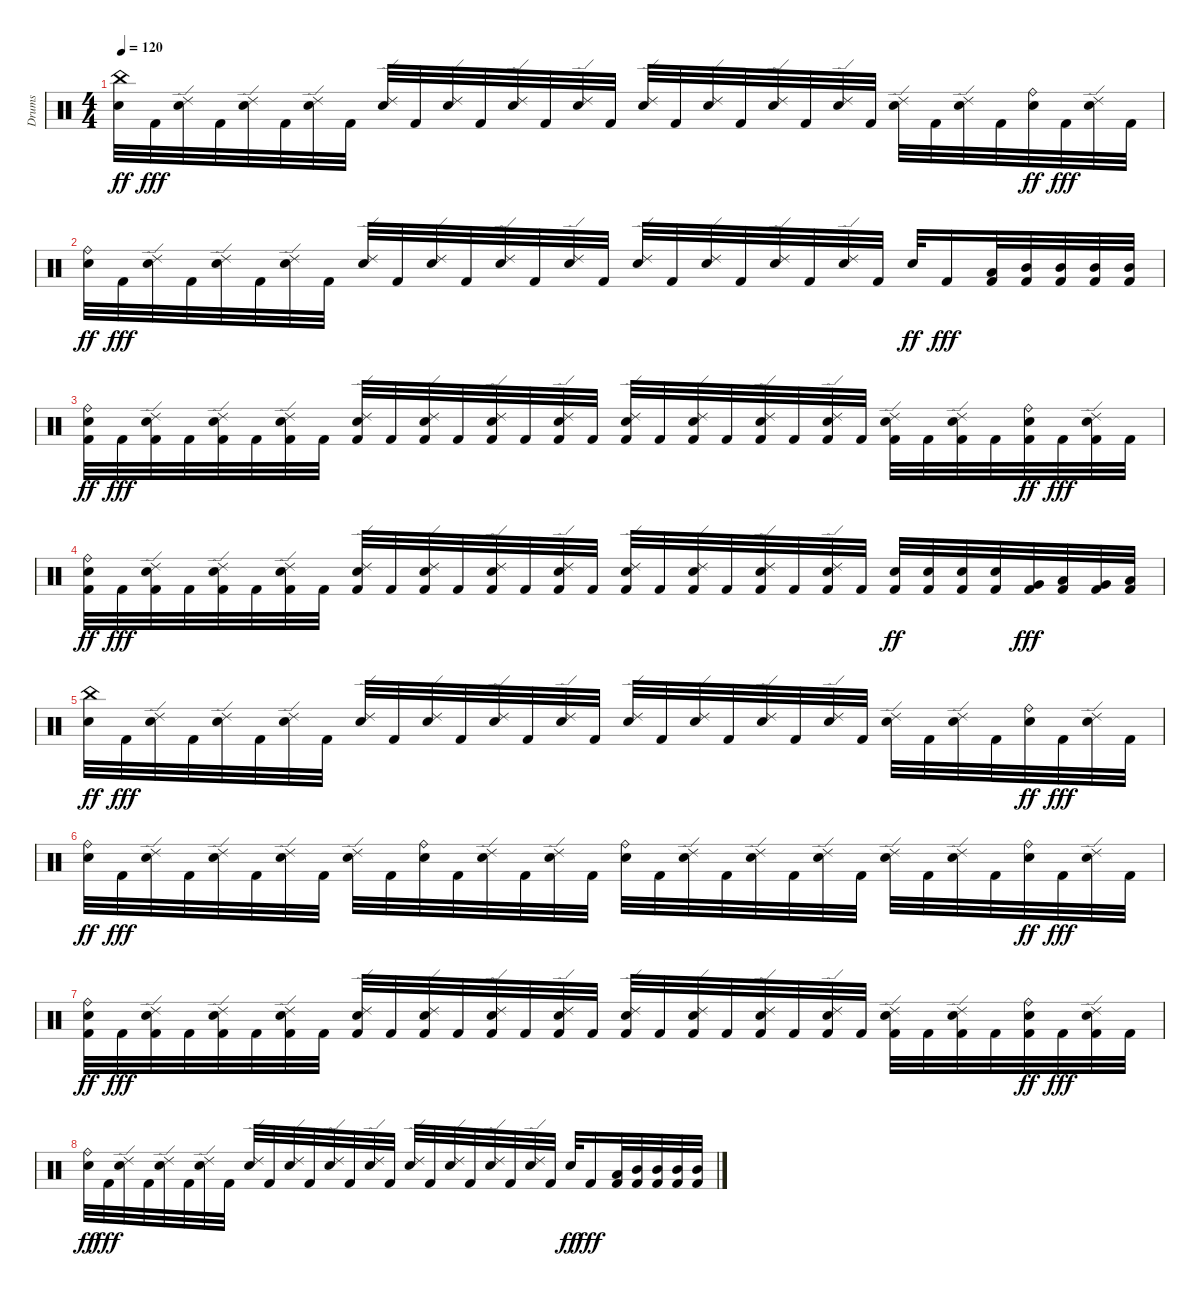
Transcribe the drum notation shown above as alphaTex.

\track ("Drums" "Drums") {instrument percussion}
\staff {score}
\articulation defaults
\ts (4 4)
\tempo 120
\clef neutral
\ks c
("Snare (hit) 2" "China (hit)").32{dy ff} "Kick (hit) 2".32{dy fff} ("Snare (hit) 2" "Ride (edge) 2").32 "Kick (hit) 2".32 ("Snare (hit) 2" "Ride (edge) 2").32 "Kick (hit) 2".32 ("Snare (hit) 2" "Ride (edge) 2").32 "Kick (hit) 2".32 ("Snare (hit) 2" "Ride (edge) 2").32 "Kick (hit) 2".32 ("Snare (hit) 2" "Ride (edge) 2").32 "Kick (hit) 2".32 ("Snare (hit) 2" "Ride (edge) 2").32 "Kick (hit) 2".32 ("Snare (hit) 2" "Ride (edge) 2").32 "Kick (hit) 2".32 ("Snare (hit) 2" "Ride (edge) 2").32 "Kick (hit) 2".32 ("Snare (hit) 2" "Ride (edge) 2").32 "Kick (hit) 2".32 ("Snare (hit) 2" "Ride (edge) 2").32 "Kick (hit) 2".32 ("Snare (hit) 2" "Ride (edge) 2").32 "Kick (hit) 2".32 ("Snare (hit) 2" "Ride (edge) 2").32 "Kick (hit) 2".32 ("Snare (hit) 2" "Ride (edge) 2").32 "Kick (hit) 2".32 ("Snare (hit) 2" "Ride (bell)").32{dy ff} "Kick (hit) 2".32{dy fff} ("Snare (hit) 2" "Ride (edge) 2").32 "Kick (hit) 2".32 |
("Snare (hit) 2" "Ride (bell)").32{dy ff} "Kick (hit) 2".32{dy fff} ("Snare (hit) 2" "Ride (edge) 2").32 "Kick (hit) 2".32 ("Snare (hit) 2" "Ride (edge) 2").32 "Kick (hit) 2".32 ("Snare (hit) 2" "Ride (edge) 2").32 "Kick (hit) 2".32 ("Snare (hit) 2" "Ride (edge) 2").32 "Kick (hit) 2".32 ("Snare (hit) 2" "Ride (edge) 2").32 "Kick (hit) 2".32 ("Snare (hit) 2" "Ride (edge) 2").32 "Kick (hit) 2".32 ("Snare (hit) 2" "Ride (edge) 2").32 "Kick (hit) 2".32 ("Snare (hit) 2" "Ride (edge) 2").32 "Kick (hit) 2".32 ("Snare (hit) 2" "Ride (edge) 2").32 "Kick (hit) 2".32 ("Snare (hit) 2" "Ride (edge) 2").32 "Kick (hit) 2".32 ("Snare (hit) 2" "Ride (edge) 2").32 "Kick (hit) 2".32 "Snare (hit) 2".32{dy ff} "Kick (hit) 2".16{dy fff} ("Kick (hit) 2" "Low Tom (hit)").32 ("Kick (hit) 2" "Mid Tom (hit)").32 ("Kick (hit) 2" "Mid Tom (hit)").32 ("Kick (hit) 2" "Mid Tom (hit)").32 ("Kick (hit) 2" "Mid Tom (hit)").32 |
("Kick (hit) 2" "Snare (hit) 2" "Ride (bell)").32{dy ff} "Kick (hit) 2".32{dy fff} ("Kick (hit) 2" "Snare (hit) 2" "Ride (edge) 2").32 "Kick (hit) 2".32 ("Kick (hit) 2" "Snare (hit) 2" "Ride (edge) 2").32 "Kick (hit) 2".32 ("Kick (hit) 2" "Snare (hit) 2" "Ride (edge) 2").32 "Kick (hit) 2".32 ("Kick (hit) 2" "Snare (hit) 2" "Ride (edge) 2").32 "Kick (hit) 2".32 ("Kick (hit) 2" "Snare (hit) 2" "Ride (edge) 2").32 "Kick (hit) 2".32 ("Kick (hit) 2" "Snare (hit) 2" "Ride (edge) 2").32 "Kick (hit) 2".32 ("Kick (hit) 2" "Snare (hit) 2" "Ride (edge) 2").32 "Kick (hit) 2".32 ("Kick (hit) 2" "Snare (hit) 2" "Ride (edge) 2").32 "Kick (hit) 2".32 ("Kick (hit) 2" "Snare (hit) 2" "Ride (edge) 2").32 "Kick (hit) 2".32 ("Kick (hit) 2" "Snare (hit) 2" "Ride (edge) 2").32 "Kick (hit) 2".32 ("Kick (hit) 2" "Snare (hit) 2" "Ride (edge) 2").32 "Kick (hit) 2".32 ("Kick (hit) 2" "Snare (hit) 2" "Ride (edge) 2").32 "Kick (hit) 2".32 ("Kick (hit) 2" "Snare (hit) 2" "Ride (edge) 2").32 "Kick (hit) 2".32 ("Kick (hit) 2" "Snare (hit) 2" "Ride (bell)").32{dy ff} "Kick (hit) 2".32{dy fff} ("Kick (hit) 2" "Snare (hit) 2" "Ride (edge) 2").32 "Kick (hit) 2".32 |
("Kick (hit) 2" "Snare (hit) 2" "Ride (bell)").32{dy ff} "Kick (hit) 2".32{dy fff} ("Kick (hit) 2" "Snare (hit) 2" "Ride (edge) 2").32 "Kick (hit) 2".32 ("Kick (hit) 2" "Snare (hit) 2" "Ride (edge) 2").32 "Kick (hit) 2".32 ("Kick (hit) 2" "Snare (hit) 2" "Ride (edge) 2").32 "Kick (hit) 2".32 ("Kick (hit) 2" "Snare (hit) 2" "Ride (edge) 2").32 "Kick (hit) 2".32 ("Kick (hit) 2" "Snare (hit) 2" "Ride (edge) 2").32 "Kick (hit) 2".32 ("Kick (hit) 2" "Snare (hit) 2" "Ride (edge) 2").32 "Kick (hit) 2".32 ("Kick (hit) 2" "Snare (hit) 2" "Ride (edge) 2").32 "Kick (hit) 2".32 ("Kick (hit) 2" "Snare (hit) 2" "Ride (edge) 2").32 "Kick (hit) 2".32 ("Kick (hit) 2" "Snare (hit) 2" "Ride (edge) 2").32 "Kick (hit) 2".32 ("Kick (hit) 2" "Snare (hit) 2" "Ride (edge) 2").32 "Kick (hit) 2".32 ("Kick (hit) 2" "Snare (hit) 2" "Ride (edge) 2").32 "Kick (hit) 2".32 ("Kick (hit) 2" "Snare (hit) 2").32{dy ff} ("Kick (hit) 2" "Snare (hit) 2").32 ("Kick (hit) 2" "Snare (hit) 2").32 ("Kick (hit) 2" "Snare (hit) 2").32 ("Kick (hit) 2" "Very Low Tom (hit)").32{dy fff} ("Kick (hit) 2" "Low Floor Tom (hit)").32 ("Kick (hit) 2" "Very Low Tom (hit)").32 ("Kick (hit) 2" "Low Floor Tom (hit)").32 |
("Snare (hit) 2" "China (hit)").32{dy ff} "Kick (hit) 2".32{dy fff} ("Snare (hit) 2" "Ride (edge) 2").32 "Kick (hit) 2".32 ("Snare (hit) 2" "Ride (edge) 2").32 "Kick (hit) 2".32 ("Snare (hit) 2" "Ride (edge) 2").32 "Kick (hit) 2".32 ("Snare (hit) 2" "Ride (edge) 2").32 "Kick (hit) 2".32 ("Snare (hit) 2" "Ride (edge) 2").32 "Kick (hit) 2".32 ("Snare (hit) 2" "Ride (edge) 2").32 "Kick (hit) 2".32 ("Snare (hit) 2" "Ride (edge) 2").32 "Kick (hit) 2".32 ("Snare (hit) 2" "Ride (edge) 2").32 "Kick (hit) 2".32 ("Snare (hit) 2" "Ride (edge) 2").32 "Kick (hit) 2".32 ("Snare (hit) 2" "Ride (edge) 2").32 "Kick (hit) 2".32 ("Snare (hit) 2" "Ride (edge) 2").32 "Kick (hit) 2".32 ("Snare (hit) 2" "Ride (edge) 2").32 "Kick (hit) 2".32 ("Snare (hit) 2" "Ride (edge) 2").32 "Kick (hit) 2".32 ("Snare (hit) 2" "Ride (bell)").32{dy ff} "Kick (hit) 2".32{dy fff} ("Snare (hit) 2" "Ride (edge) 2").32 "Kick (hit) 2".32 |
("Snare (hit) 2" "Ride (bell)").32{dy ff} "Kick (hit) 2".32{dy fff} ("Snare (hit) 2" "Ride (edge) 2").32 "Kick (hit) 2".32 ("Snare (hit) 2" "Ride (edge) 2").32 "Kick (hit) 2".32 ("Snare (hit) 2" "Ride (edge) 2").32 "Kick (hit) 2".32 ("Snare (hit) 2" "Ride (edge) 2").32 "Kick (hit) 2".32 ("Snare (hit) 2" "Ride (bell)").32 "Kick (hit) 2".32 ("Snare (hit) 2" "Ride (edge) 2").32 "Kick (hit) 2".32 ("Snare (hit) 2" "Ride (edge) 2").32 "Kick (hit) 2".32 ("Snare (hit) 2" "Ride (bell)").32 "Kick (hit) 2".32 ("Snare (hit) 2" "Ride (edge) 2").32 "Kick (hit) 2".32 ("Snare (hit) 2" "Ride (edge) 2").32 "Kick (hit) 2".32 ("Snare (hit) 2" "Ride (edge) 2").32 "Kick (hit) 2".32 ("Snare (hit) 2" "Ride (edge) 2").32 "Kick (hit) 2".32 ("Snare (hit) 2" "Ride (edge) 2").32 "Kick (hit) 2".32 ("Snare (hit) 2" "Ride (bell)").32{dy ff} "Kick (hit) 2".32{dy fff} ("Snare (hit) 2" "Ride (edge) 2").32 "Kick (hit) 2".32 |
("Kick (hit) 2" "Snare (hit) 2" "Ride (bell)").32{dy ff} "Kick (hit) 2".32{dy fff} ("Kick (hit) 2" "Snare (hit) 2" "Ride (edge) 2").32 "Kick (hit) 2".32 ("Kick (hit) 2" "Snare (hit) 2" "Ride (edge) 2").32 "Kick (hit) 2".32 ("Kick (hit) 2" "Snare (hit) 2" "Ride (edge) 2").32 "Kick (hit) 2".32 ("Kick (hit) 2" "Snare (hit) 2" "Ride (edge) 2").32 "Kick (hit) 2".32 ("Kick (hit) 2" "Snare (hit) 2" "Ride (edge) 2").32 "Kick (hit) 2".32 ("Kick (hit) 2" "Snare (hit) 2" "Ride (edge) 2").32 "Kick (hit) 2".32 ("Kick (hit) 2" "Snare (hit) 2" "Ride (edge) 2").32 "Kick (hit) 2".32 ("Kick (hit) 2" "Snare (hit) 2" "Ride (edge) 2").32 "Kick (hit) 2".32 ("Kick (hit) 2" "Snare (hit) 2" "Ride (edge) 2").32 "Kick (hit) 2".32 ("Kick (hit) 2" "Snare (hit) 2" "Ride (edge) 2").32 "Kick (hit) 2".32 ("Kick (hit) 2" "Snare (hit) 2" "Ride (edge) 2").32 "Kick (hit) 2".32 ("Kick (hit) 2" "Snare (hit) 2" "Ride (edge) 2").32 "Kick (hit) 2".32 ("Kick (hit) 2" "Snare (hit) 2" "Ride (edge) 2").32 "Kick (hit) 2".32 ("Kick (hit) 2" "Snare (hit) 2" "Ride (bell)").32{dy ff} "Kick (hit) 2".32{dy fff} ("Kick (hit) 2" "Snare (hit) 2" "Ride (edge) 2").32 "Kick (hit) 2".32 |
("Snare (hit) 2" "Ride (bell)").32{dy ff} "Kick (hit) 2".32{dy fff} ("Snare (hit) 2" "Ride (edge) 2").32 "Kick (hit) 2".32 ("Snare (hit) 2" "Ride (edge) 2").32 "Kick (hit) 2".32 ("Snare (hit) 2" "Ride (edge) 2").32 "Kick (hit) 2".32 ("Snare (hit) 2" "Ride (edge) 2").32 "Kick (hit) 2".32 ("Snare (hit) 2" "Ride (edge) 2").32 "Kick (hit) 2".32 ("Snare (hit) 2" "Ride (edge) 2").32 "Kick (hit) 2".32 ("Snare (hit) 2" "Ride (edge) 2").32 "Kick (hit) 2".32 ("Snare (hit) 2" "Ride (edge) 2").32 "Kick (hit) 2".32 ("Snare (hit) 2" "Ride (edge) 2").32 "Kick (hit) 2".32 ("Snare (hit) 2" "Ride (edge) 2").32 "Kick (hit) 2".32 ("Snare (hit) 2" "Ride (edge) 2").32 "Kick (hit) 2".32 "Snare (hit) 2".32{dy ff} "Kick (hit) 2".16{dy fff} ("Kick (hit) 2" "Low Tom (hit)").32 ("Kick (hit) 2" "Mid Tom (hit)").32 ("Kick (hit) 2" "Mid Tom (hit)").32 ("Kick (hit) 2" "Mid Tom (hit)").32 ("Kick (hit) 2" "Mid Tom (hit)").32
